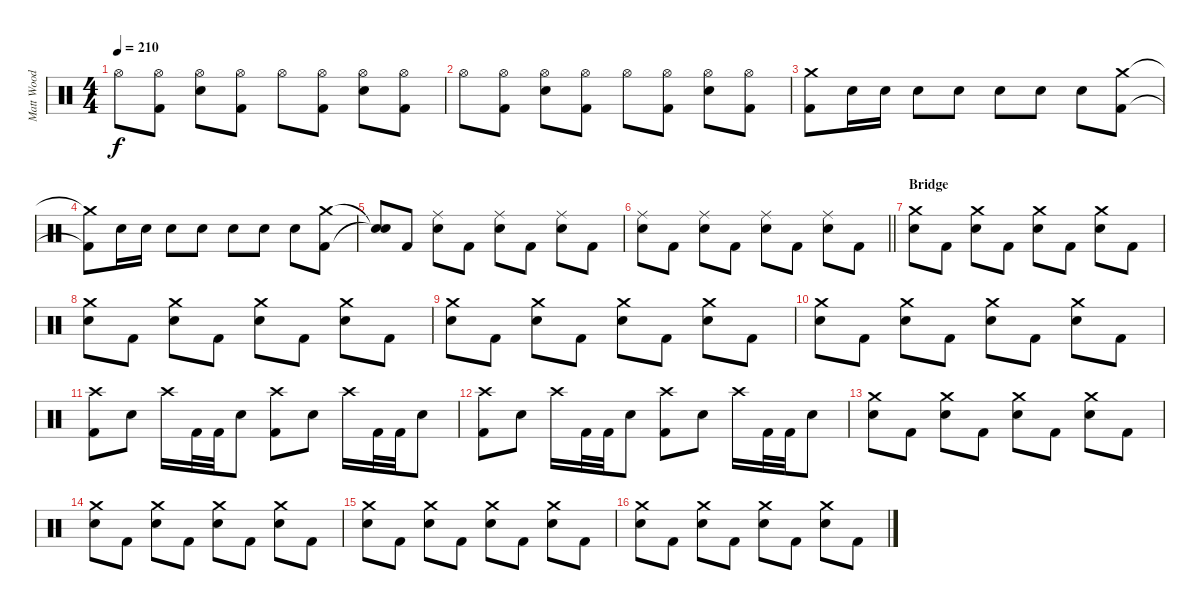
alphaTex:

\track ("Matt Wood" "Matt Wood") {instrument percussion}
\staff {score}
\articulation defaults
\ts (4 4)
\tempo 210
\clef neutral
\ks c "Hi-Hat (open)".8{dy f}
("Hi-Hat (open)" "Kick (hit) 2").8 ("Hi-Hat (open)" "Snare (hit) 2").8 ("Hi-Hat (open)" "Kick (hit) 2").8 "Hi-Hat (open)".8 ("Hi-Hat (open)" "Kick (hit) 2").8 ("Hi-Hat (open)" "Snare (hit) 2").8 ("Hi-Hat (open)" "Kick (hit) 2").8 |
"Hi-Hat (open)".8 ("Hi-Hat (open)" "Kick (hit) 2").8 ("Hi-Hat (open)" "Snare (hit) 2").8 ("Hi-Hat (open)" "Kick (hit) 2").8 "Hi-Hat (open)".8 ("Hi-Hat (open)" "Kick (hit) 2").8 ("Hi-Hat (open)" "Snare (hit) 2").8 ("Hi-Hat (open)" "Kick (hit) 2").8 |
("Crash medium (hit)" "Kick (hit) 2").8 "Snare (hit) 2".16 "Snare (hit) 2".16 "Snare (hit) 2".8 "Snare (hit) 2".8 "Snare (hit) 2".8 "Snare (hit) 2".8 "Snare (hit) 2".8 ("Crash medium (hit)" "Kick (hit) 2").8 |
("Crash medium (hit)"{t} "Kick (hit) 2"{t}).8 "Snare (hit) 2".16 "Snare (hit) 2".16 "Snare (hit) 2".8 "Snare (hit) 2".8 "Snare (hit) 2".8 "Snare (hit) 2".8 "Snare (hit) 2".8 ("Crash medium (hit)" "Kick (hit) 2").8 |
("Snare (hit)"{t} "Snare (hit)"{t}).8 "Kick (hit) 2".8 ("Ride (middle)" "Snare (hit) 2").8 "Kick (hit) 2".8 ("Ride (middle)" "Snare (hit) 2").8 "Kick (hit) 2".8 ("Ride (middle)" "Snare (hit) 2").8 "Kick (hit) 2".8 |
\barLineRight lightlight
("Ride (middle)" "Snare (hit) 2").8 "Kick (hit) 2".8 ("Ride (middle)" "Snare (hit) 2").8 "Kick (hit) 2".8 ("Ride (middle)" "Snare (hit) 2").8 "Kick (hit) 2".8 ("Ride (middle)" "Snare (hit) 2").8 "Kick (hit) 2".8 |
\section ("" "Bridge")
("Crash medium (hit)" "Snare (hit) 2").8 "Kick (hit) 2".8 ("Crash medium (hit)" "Snare (hit) 2").8 "Kick (hit) 2".8 ("Crash medium (hit)" "Snare (hit) 2").8 "Kick (hit) 2".8 ("Crash medium (hit)" "Snare (hit) 2").8 "Kick (hit) 2".8 |
("Crash medium (hit)" "Snare (hit) 2").8 "Kick (hit) 2".8 ("Crash medium (hit)" "Snare (hit) 2").8 "Kick (hit) 2".8 ("Crash medium (hit)" "Snare (hit) 2").8 "Kick (hit) 2".8 ("Crash medium (hit)" "Snare (hit) 2").8 "Kick (hit) 2".8 |
("Crash medium (hit)" "Snare (hit) 2").8 "Kick (hit) 2".8 ("Crash medium (hit)" "Snare (hit) 2").8 "Kick (hit) 2".8 ("Crash medium (hit)" "Snare (hit) 2").8 "Kick (hit) 2".8 ("Crash medium (hit)" "Snare (hit) 2").8 "Kick (hit) 2".8 |
("Crash medium (hit)" "Snare (hit) 2").8 "Kick (hit) 2".8 ("Crash medium (hit)" "Snare (hit) 2").8 "Kick (hit) 2".8 ("Crash medium (hit)" "Snare (hit) 2").8 "Kick (hit) 2".8 ("Crash medium (hit)" "Snare (hit) 2").8 "Kick (hit) 2".8 |
("Crash high (hit)" "Kick (hit) 2").8 "Snare (hit) 2".8 "Crash high (hit)".16 "Kick (hit) 2".32 "Kick (hit) 2".32 "Snare (hit) 2".8 ("Crash high (hit)" "Kick (hit) 2").8 "Snare (hit) 2".8 "Crash high (hit)".16 "Kick (hit) 2".32 "Kick (hit) 2".32 "Snare (hit) 2".8 |
("Crash high (hit)" "Kick (hit) 2").8 "Snare (hit) 2".8 "Crash high (hit)".16 "Kick (hit) 2".32 "Kick (hit) 2".32 "Snare (hit) 2".8 ("Crash high (hit)" "Kick (hit) 2").8 "Snare (hit) 2".8 "Crash high (hit)".16 "Kick (hit) 2".32 "Kick (hit) 2".32 "Snare (hit) 2".8 |
("Crash medium (hit)" "Snare (hit) 2").8 "Kick (hit) 2".8 ("Crash medium (hit)" "Snare (hit) 2").8 "Kick (hit) 2".8 ("Crash medium (hit)" "Snare (hit) 2").8 "Kick (hit) 2".8 ("Crash medium (hit)" "Snare (hit) 2").8 "Kick (hit) 2".8 |
("Crash medium (hit)" "Snare (hit) 2").8 "Kick (hit) 2".8 ("Crash medium (hit)" "Snare (hit) 2").8 "Kick (hit) 2".8 ("Crash medium (hit)" "Snare (hit) 2").8 "Kick (hit) 2".8 ("Crash medium (hit)" "Snare (hit) 2").8 "Kick (hit) 2".8 |
("Crash medium (hit)" "Snare (hit) 2").8 "Kick (hit) 2".8 ("Crash medium (hit)" "Snare (hit) 2").8 "Kick (hit) 2".8 ("Crash medium (hit)" "Snare (hit) 2").8 "Kick (hit) 2".8 ("Crash medium (hit)" "Snare (hit) 2").8 "Kick (hit) 2".8 |
("Crash medium (hit)" "Snare (hit) 2").8 "Kick (hit) 2".8 ("Crash medium (hit)" "Snare (hit) 2").8 "Kick (hit) 2".8 ("Crash medium (hit)" "Snare (hit) 2").8 "Kick (hit) 2".8 ("Crash medium (hit)" "Snare (hit) 2").8 "Kick (hit) 2".8
